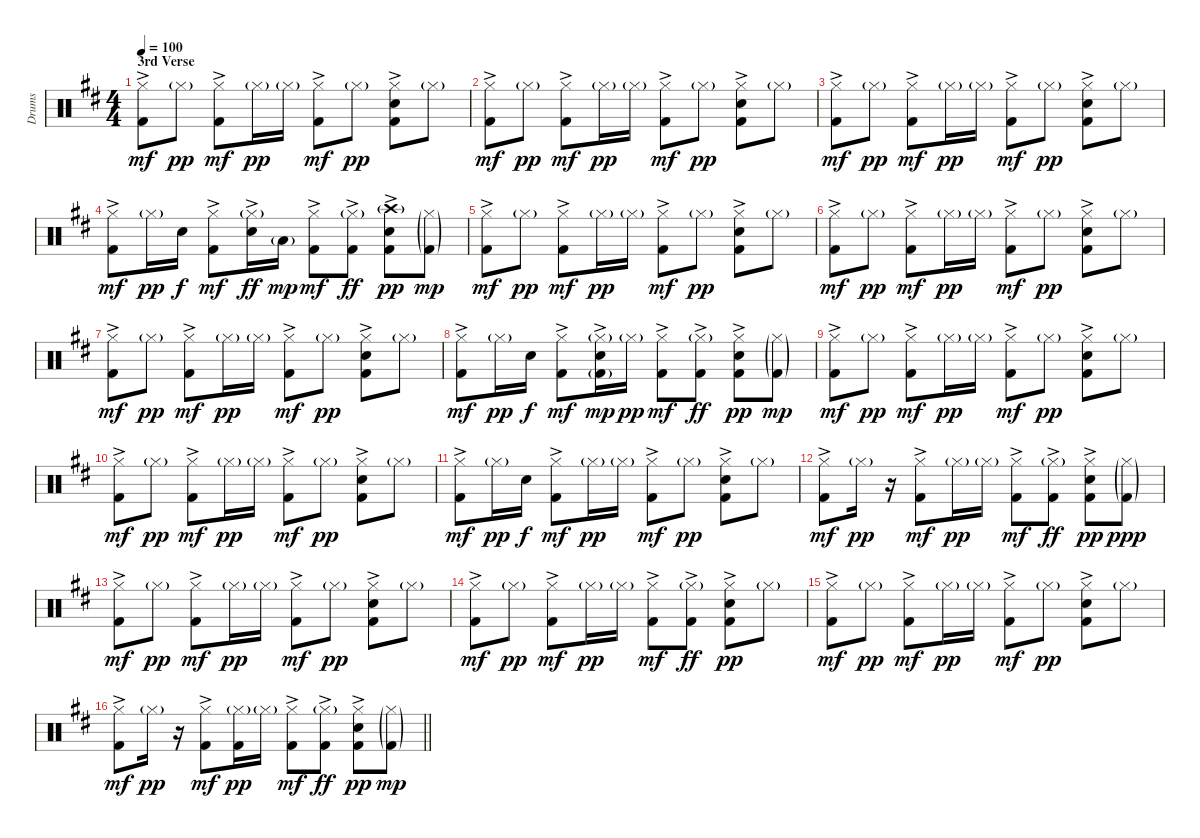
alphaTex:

\track ("Drums" "Drums") {instrument percussion}
\staff {score}
\articulation defaults
\ts (4 4)
\section ("" "3rd Verse")
\tempo 100
\clef neutral
\ks d
("Hi-Hat (closed)" "Kick (hit) 2"{ac}).8{dy mf} "Hi-Hat (closed)"{g}.8{dy pp} ("Hi-Hat (closed)"{ac} "Kick (hit) 2"{ac}).8{dy mf} "Hi-Hat (closed)"{g}.16{dy pp} "Hi-Hat (closed)"{g}.16 ("Hi-Hat (closed)" "Kick (hit) 2"{ac}).8{dy mf} "Hi-Hat (closed)"{g}.8{dy pp} ("Hi-Hat (closed)"{ac} "Snare (hit) 2"{ac} "Kick (hit) 2").8 "Hi-Hat (closed)"{g}.8 |
("Hi-Hat (closed)" "Kick (hit) 2"{ac}).8{dy mf} "Hi-Hat (closed)"{g}.8{dy pp} ("Hi-Hat (closed)"{ac} "Kick (hit) 2"{ac}).8{dy mf} "Hi-Hat (closed)"{g}.16{dy pp} "Hi-Hat (closed)"{g}.16 ("Hi-Hat (closed)" "Kick (hit) 2"{ac}).8{dy mf} "Hi-Hat (closed)"{g}.8{dy pp} ("Hi-Hat (closed)"{ac} "Snare (hit) 2"{ac} "Kick (hit) 2").8 "Hi-Hat (closed)"{g}.8 |
("Hi-Hat (closed)" "Kick (hit) 2"{ac}).8{dy mf} "Hi-Hat (closed)"{g}.8{dy pp} ("Hi-Hat (closed)"{ac} "Kick (hit) 2"{ac}).8{dy mf} "Hi-Hat (closed)"{g}.16{dy pp} "Hi-Hat (closed)"{g}.16 ("Hi-Hat (closed)" "Kick (hit) 2"{ac}).8{dy mf} "Hi-Hat (closed)"{g}.8{dy pp} ("Hi-Hat (closed)"{ac} "Snare (hit) 2"{ac} "Kick (hit) 2").8 "Hi-Hat (closed)"{g}.8 |
("Hi-Hat (closed)" "Kick (hit) 2"{ac}).8{dy mf} "Hi-Hat (closed)"{g}.16{dy pp} "Snare (hit) 2".16{dy f} ("Hi-Hat (closed)"{ac} "Kick (hit) 2"{ac}).8{dy mf} ("Hi-Hat (closed)"{g} "Snare (hit) 2"{ac}).16{dy ff} "Low Tom (hit)"{g}.16{dy mp} ("Hi-Hat (closed)" "Kick (hit) 2"{ac}).8{dy mf} ("Hi-Hat (closed)"{g} "Kick (hit) 2"{ac}).8{dy ff} ("Crash high (hit)"{g} "Snare (hit) 2"{ac} "Kick (hit) 2").8{dy pp} ("Hi-Hat (closed)"{g} "Kick (hit) 2"{g}).8{dy mp} |
("Hi-Hat (closed)" "Kick (hit) 2"{ac}).8{dy mf} "Hi-Hat (closed)"{g}.8{dy pp} ("Hi-Hat (closed)"{ac} "Kick (hit) 2"{ac}).8{dy mf} "Hi-Hat (closed)"{g}.16{dy pp} "Hi-Hat (closed)"{g}.16 ("Hi-Hat (closed)" "Kick (hit) 2"{ac}).8{dy mf} "Hi-Hat (closed)"{g}.8{dy pp} ("Hi-Hat (closed)"{ac} "Snare (hit) 2"{ac} "Kick (hit) 2").8 "Hi-Hat (closed)"{g}.8 |
("Hi-Hat (closed)" "Kick (hit) 2"{ac}).8{dy mf} "Hi-Hat (closed)"{g}.8{dy pp} ("Hi-Hat (closed)"{ac} "Kick (hit) 2"{ac}).8{dy mf} "Hi-Hat (closed)"{g}.16{dy pp} "Hi-Hat (closed)"{g}.16 ("Hi-Hat (closed)" "Kick (hit) 2"{ac}).8{dy mf} "Hi-Hat (closed)"{g}.8{dy pp} ("Hi-Hat (closed)"{ac} "Snare (hit) 2"{ac} "Kick (hit) 2").8 "Hi-Hat (closed)"{g}.8 |
("Hi-Hat (closed)" "Kick (hit) 2"{ac}).8{dy mf} "Hi-Hat (closed)"{g}.8{dy pp} ("Hi-Hat (closed)"{ac} "Kick (hit) 2"{ac}).8{dy mf} "Hi-Hat (closed)"{g}.16{dy pp} "Hi-Hat (closed)"{g}.16 ("Hi-Hat (closed)" "Kick (hit) 2"{ac}).8{dy mf} "Hi-Hat (closed)"{g}.8{dy pp} ("Hi-Hat (closed)"{ac} "Snare (hit) 2"{ac} "Kick (hit) 2").8 "Hi-Hat (closed)"{g}.8 |
("Hi-Hat (closed)" "Kick (hit) 2"{ac}).8{dy mf} "Hi-Hat (closed)"{g}.16{dy pp} "Snare (hit) 2".16{dy f} ("Hi-Hat (closed)"{ac} "Kick (hit) 2"{ac}).8{dy mf} ("Hi-Hat (closed)"{g} "Snare (hit) 2"{ac} "Kick (hit) 2"{g}).16{dy mp} "Hi-Hat (closed)"{g}.16{dy pp} ("Hi-Hat (closed)" "Kick (hit) 2"{ac}).8{dy mf} ("Hi-Hat (closed)"{g} "Kick (hit) 2"{ac}).8{dy ff} ("Hi-Hat (closed)"{ac} "Snare (hit) 2"{ac} "Kick (hit) 2").8{dy pp} ("Hi-Hat (closed)"{g} "Kick (hit) 2"{g}).8{dy mp} |
("Hi-Hat (closed)" "Kick (hit) 2"{ac}).8{dy mf} "Hi-Hat (closed)"{g}.8{dy pp} ("Hi-Hat (closed)"{ac} "Kick (hit) 2"{ac}).8{dy mf} "Hi-Hat (closed)"{g}.16{dy pp} "Hi-Hat (closed)"{g}.16 ("Hi-Hat (closed)" "Kick (hit) 2"{ac}).8{dy mf} "Hi-Hat (closed)"{g}.8{dy pp} ("Hi-Hat (closed)"{ac} "Snare (hit) 2"{ac} "Kick (hit) 2").8 "Hi-Hat (closed)"{g}.8 |
("Hi-Hat (closed)" "Kick (hit) 2"{ac}).8{dy mf} "Hi-Hat (closed)"{g}.8{dy pp} ("Hi-Hat (closed)"{ac} "Kick (hit) 2"{ac}).8{dy mf} "Hi-Hat (closed)"{g}.16{dy pp} "Hi-Hat (closed)"{g}.16 ("Hi-Hat (closed)" "Kick (hit) 2"{ac}).8{dy mf} "Hi-Hat (closed)"{g}.8{dy pp} ("Hi-Hat (closed)"{ac} "Snare (hit) 2"{ac} "Kick (hit) 2").8 "Hi-Hat (closed)"{g}.8 |
("Hi-Hat (closed)" "Kick (hit) 2"{ac}).8{dy mf} "Hi-Hat (closed)"{g}.16{dy pp} "Snare (hit) 2".16{dy f} ("Hi-Hat (closed)"{ac} "Kick (hit) 2"{ac}).8{dy mf} "Hi-Hat (closed)"{g}.16{dy pp} "Hi-Hat (closed)"{g}.16 ("Hi-Hat (closed)" "Kick (hit) 2"{ac}).8{dy mf} "Hi-Hat (closed)"{g}.8{dy pp} ("Hi-Hat (closed)"{ac} "Snare (hit) 2"{ac} "Kick (hit) 2").8 "Hi-Hat (closed)"{g}.8 |
("Hi-Hat (closed)" "Kick (hit) 2"{ac}).8{dy mf} "Hi-Hat (closed)"{g}.16{dy pp} r.16 ("Hi-Hat (closed)"{ac} "Kick (hit) 2"{ac}).8{dy mf} "Hi-Hat (closed)"{g}.16{dy pp} "Hi-Hat (closed)"{g}.16 ("Hi-Hat (closed)" "Kick (hit) 2"{ac}).8{dy mf} ("Hi-Hat (closed)"{g} "Kick (hit) 2"{ac}).8{dy ff} ("Hi-Hat (closed)"{ac} "Snare (hit) 2"{ac} "Kick (hit) 2").8{dy pp} ("Hi-Hat (closed)"{g} "Kick (hit) 2"{g}).8{dy ppp} |
("Hi-Hat (closed)" "Kick (hit) 2"{ac}).8{dy mf} "Hi-Hat (closed)"{g}.8{dy pp} ("Hi-Hat (closed)"{ac} "Kick (hit) 2"{ac}).8{dy mf} "Hi-Hat (closed)"{g}.16{dy pp} "Hi-Hat (closed)"{g}.16 ("Hi-Hat (closed)" "Kick (hit) 2"{ac}).8{dy mf} "Hi-Hat (closed)"{g}.8{dy pp} ("Hi-Hat (closed)"{ac} "Snare (hit) 2"{ac} "Kick (hit) 2").8 "Hi-Hat (closed)"{g}.8 |
("Hi-Hat (closed)" "Kick (hit) 2"{ac}).8{dy mf} "Hi-Hat (closed)"{g}.8{dy pp} ("Hi-Hat (closed)"{ac} "Kick (hit) 2"{ac}).8{dy mf} "Hi-Hat (closed)"{g}.16{dy pp} "Hi-Hat (closed)"{g}.16 ("Hi-Hat (closed)" "Kick (hit) 2"{ac}).8{dy mf} ("Hi-Hat (closed)"{g} "Kick (hit) 2"{ac}).8{dy ff} ("Hi-Hat (closed)"{ac} "Snare (hit) 2"{ac} "Kick (hit) 2").8{dy pp} "Hi-Hat (closed)"{g}.8 |
("Hi-Hat (closed)" "Kick (hit) 2"{ac}).8{dy mf} "Hi-Hat (closed)"{g}.8{dy pp} ("Hi-Hat (closed)"{ac} "Kick (hit) 2"{ac}).8{dy mf} "Hi-Hat (closed)"{g}.16{dy pp} "Hi-Hat (closed)"{g}.16 ("Hi-Hat (closed)" "Kick (hit) 2"{ac}).8{dy mf} "Hi-Hat (closed)"{g}.8{dy pp} ("Hi-Hat (closed)"{ac} "Snare (hit) 2"{ac} "Kick (hit) 2").8 "Hi-Hat (closed)"{g}.8 |
\barLineRight lightlight
("Hi-Hat (closed)" "Kick (hit) 2"{ac}).8{dy mf} "Hi-Hat (closed)"{g}.16{dy pp} r.16 ("Hi-Hat (closed)"{ac} "Kick (hit) 2"{ac}).8{dy mf} ("Hi-Hat (closed)"{g} "Kick (hit) 2").16{dy pp} "Hi-Hat (closed)"{g}.16 ("Hi-Hat (closed)" "Kick (hit) 2"{ac}).8{dy mf} ("Hi-Hat (closed)"{g} "Kick (hit) 2"{ac}).8{dy ff} ("Hi-Hat (closed)"{ac} "Snare (hit) 2"{ac} "Kick (hit) 2").8{dy pp} ("Hi-Hat (closed)"{g} "Kick (hit) 2"{g}).8{dy mp}
